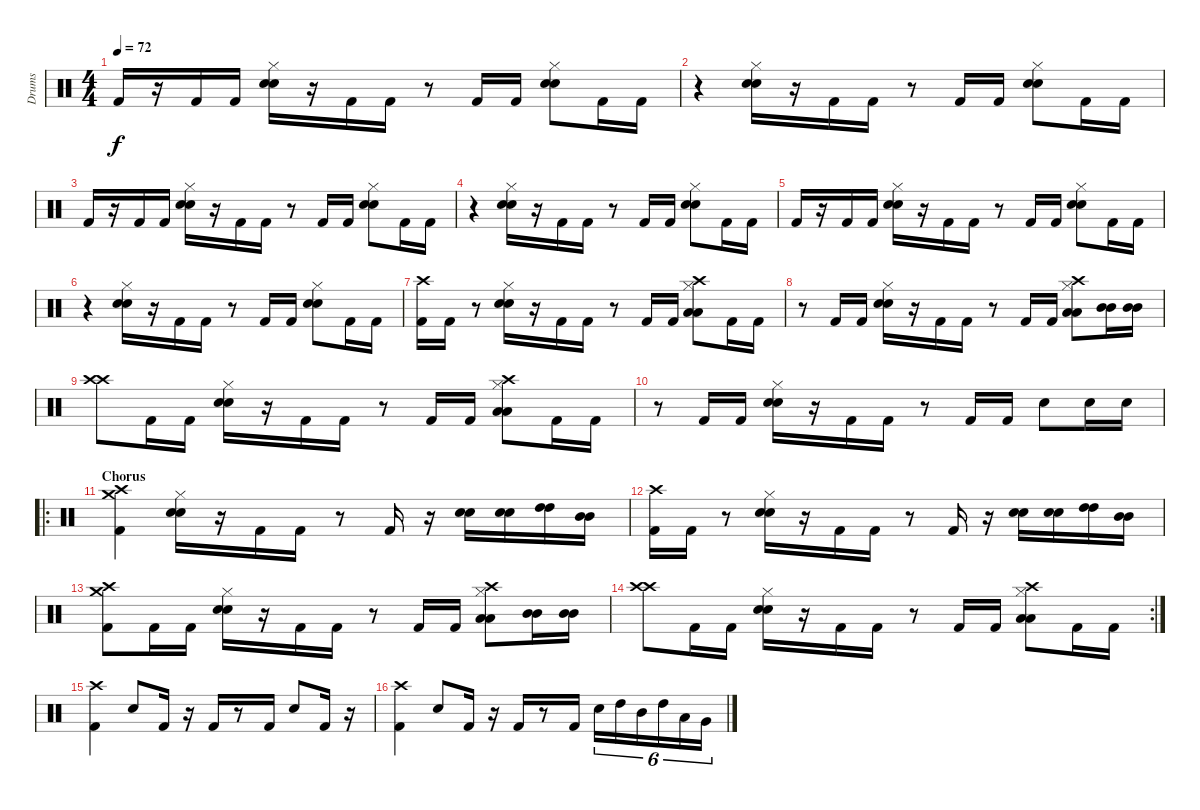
\track ("Drums" "Drums") {instrument percussion}
\staff {score}
\articulation defaults
\ts (4 4)
\tempo 72
\clef neutral
\ks c "Kick (hit) 2".16{dy f}
r.16 "Kick (hit) 2".16 "Kick (hit) 2".16 ("Hi-Hat (closed)" "Electric Snare (hit)" "Electric Snare (hit)").16 r.16 "Kick (hit) 2".16 "Kick (hit) 2".16 r.8 "Kick (hit) 2".16 "Kick (hit) 2".16 ("Hi-Hat (closed)" "Electric Snare (hit)" "Electric Snare (hit)").8 "Kick (hit) 2".16 "Kick (hit) 2".16 |
r.4 ("Hi-Hat (closed)" "Electric Snare (hit)" "Electric Snare (hit)").16 r.16 "Kick (hit) 2".16 "Kick (hit) 2".16 r.8 "Kick (hit) 2".16 "Kick (hit) 2".16 ("Hi-Hat (closed)" "Electric Snare (hit)" "Electric Snare (hit)").8 "Kick (hit) 2".16 "Kick (hit) 2".16 |
"Kick (hit) 2".16 r.16 "Kick (hit) 2".16 "Kick (hit) 2".16 ("Hi-Hat (closed)" "Electric Snare (hit)" "Electric Snare (hit)").16 r.16 "Kick (hit) 2".16 "Kick (hit) 2".16 r.8 "Kick (hit) 2".16 "Kick (hit) 2".16 ("Hi-Hat (closed)" "Electric Snare (hit)" "Electric Snare (hit)").8 "Kick (hit) 2".16 "Kick (hit) 2".16 |
r.4 ("Hi-Hat (closed)" "Electric Snare (hit)" "Electric Snare (hit)").16 r.16 "Kick (hit) 2".16 "Kick (hit) 2".16 r.8 "Kick (hit) 2".16 "Kick (hit) 2".16 ("Hi-Hat (closed)" "Electric Snare (hit)" "Electric Snare (hit)").8 "Kick (hit) 2".16 "Kick (hit) 2".16 |
"Kick (hit) 2".16 r.16 "Kick (hit) 2".16 "Kick (hit) 2".16 ("Hi-Hat (closed)" "Electric Snare (hit)" "Electric Snare (hit)").16 r.16 "Kick (hit) 2".16 "Kick (hit) 2".16 r.8 "Kick (hit) 2".16 "Kick (hit) 2".16 ("Hi-Hat (closed)" "Electric Snare (hit)" "Electric Snare (hit)").8 "Kick (hit) 2".16 "Kick (hit) 2".16 |
r.4 ("Hi-Hat (closed)" "Electric Snare (hit)" "Electric Snare (hit)").16 r.16 "Kick (hit) 2".16 "Kick (hit) 2".16 r.8 "Kick (hit) 2".16 "Kick (hit) 2".16 ("Hi-Hat (closed)" "Electric Snare (hit)" "Electric Snare (hit)").8 "Kick (hit) 2".16 "Kick (hit) 2".16 |
("Crash high (hit)" "Kick (hit) 2").16 "Kick (hit) 2".16 r.8 ("Hi-Hat (closed)" "Electric Snare (hit)" "Electric Snare (hit)").16 r.16 "Kick (hit) 2".16 "Kick (hit) 2".16 r.8 "Kick (hit) 2".16 "Kick (hit) 2".16 ("Crash high (hit)" "Hi-Hat (closed)" "Low Tom (hit)" "Low Tom (hit)").8 "Kick (hit) 2".16 "Kick (hit) 2".16 |
r.8 "Kick (hit) 2".16 "Kick (hit) 2".16 ("Hi-Hat (closed)" "Electric Snare (hit)" "Electric Snare (hit)").16 r.16 "Kick (hit) 2".16 "Kick (hit) 2".16 r.8 "Kick (hit) 2".16 "Kick (hit) 2".16 ("Hi-Hat (closed)" "Crash high (hit)" "Low Tom (hit)" "Low Tom (hit)").8 ("Mid Tom (hit)" "Mid Tom (hit)").16 ("Mid Tom (hit)" "Mid Tom (hit)").16 |
("Crash high (hit)" "Crash high (hit)").8 "Kick (hit) 2".16 "Kick (hit) 2".16 ("Hi-Hat (closed)" "Electric Snare (hit)" "Electric Snare (hit)").16 r.16 "Kick (hit) 2".16 "Kick (hit) 2".16 r.8 "Kick (hit) 2".16 "Kick (hit) 2".16 ("Crash high (hit)" "Hi-Hat (closed)" "Low Tom (hit)" "Low Tom (hit)").8 "Kick (hit) 2".16 "Kick (hit) 2".16 |
r.8 "Kick (hit) 2".16 "Kick (hit) 2".16 ("Hi-Hat (closed)" "Electric Snare (hit)" "Electric Snare (hit)").16 r.16 "Kick (hit) 2".16 "Kick (hit) 2".16 r.8 "Kick (hit) 2".16 "Kick (hit) 2".16 "Electric Snare (hit)".8 "Electric Snare (hit)".16 "Electric Snare (hit)".16 |
\ro
\section ("" "Chorus")
("Crash high (hit)" "Crash medium (hit)" "Kick (hit) 2").4 ("Hi-Hat (closed)" "Electric Snare (hit)" "Electric Snare (hit)").16 r.16 "Kick (hit) 2".16 "Kick (hit) 2".16 r.8 "Kick (hit) 2".16 r.16 ("Electric Snare (hit)" "Electric Snare (hit)").16 ("Electric Snare (hit)" "Electric Snare (hit)").16 ("High Tom (hit)" "High Tom (hit)").16 ("Mid Tom (hit)" "Mid Tom (hit)").16 |
("Crash high (hit)" "Kick (hit) 2").16 "Kick (hit) 2".16 r.8 ("Hi-Hat (closed)" "Electric Snare (hit)" "Electric Snare (hit)").16 r.16 "Kick (hit) 2".16 "Kick (hit) 2".16 r.8 "Kick (hit) 2".16 r.16 ("Electric Snare (hit)" "Electric Snare (hit)").16 ("Electric Snare (hit)" "Electric Snare (hit)").16 ("High Tom (hit)" "High Tom (hit)").16 ("Mid Tom (hit)" "Mid Tom (hit)").16 |
("Crash high (hit)" "Crash medium (hit)" "Kick (hit) 2").8 "Kick (hit) 2".16 "Kick (hit) 2".16 ("Hi-Hat (closed)" "Electric Snare (hit)" "Electric Snare (hit)").16 r.16 "Kick (hit) 2".16 "Kick (hit) 2".16 r.8 "Kick (hit) 2".16 "Kick (hit) 2".16 ("Hi-Hat (closed)" "Crash high (hit)" "Low Tom (hit)" "Low Tom (hit)").8 ("Mid Tom (hit)" "Mid Tom (hit)").16 ("Mid Tom (hit)" "Mid Tom (hit)").16 |
\rc 2
("Crash high (hit)" "Crash high (hit)").8 "Kick (hit) 2".16 "Kick (hit) 2".16 ("Hi-Hat (closed)" "Electric Snare (hit)" "Electric Snare (hit)").16 r.16 "Kick (hit) 2".16 "Kick (hit) 2".16 r.8 "Kick (hit) 2".16 "Kick (hit) 2".16 ("Crash high (hit)" "Hi-Hat (closed)" "Low Tom (hit)" "Low Tom (hit)").8 "Kick (hit) 2".16 "Kick (hit) 2".16 |
("Crash high (hit)" "Kick (hit) 2").4 "Electric Snare (hit)".8 "Kick (hit) 2".16 r.16 "Kick (hit) 2".16 r.8 "Kick (hit) 2".16 "Electric Snare (hit)".8 "Kick (hit) 2".16 r.16 |
("Crash high (hit)" "Kick (hit) 2").4 "Electric Snare (hit)".8 "Kick (hit) 2".16 r.16 "Kick (hit) 2".16 r.8 "Kick (hit) 2".16 "Electric Snare (hit)".16{tu (6 4)} "High Tom (hit)".16{tu (6 4)} "Mid Tom (hit)".16{tu (6 4)} "High Tom (hit)".16{tu (6 4)} "Low Tom (hit)".16{tu (6 4)} "Very Low Tom (hit)".16{tu (6 4)}
